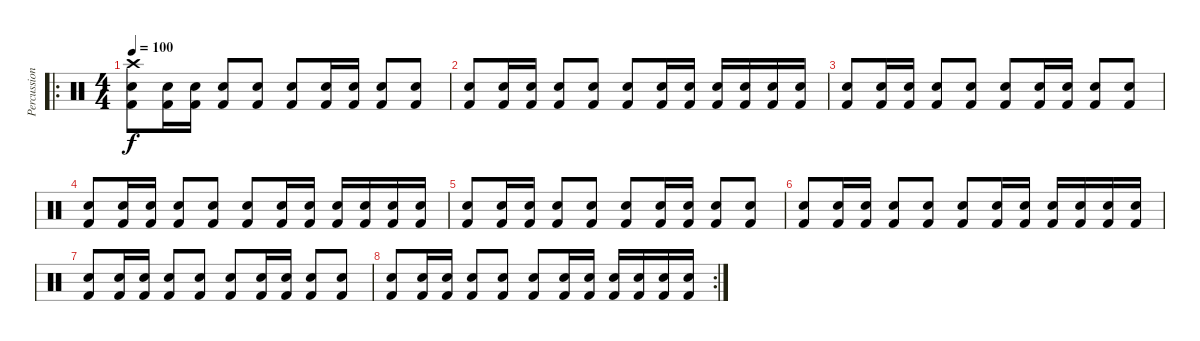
\track ("Percussions" "Percussion") {instrument percussion}
\staff {score}
\articulation defaults
\ro
\ts (4 4)
\tempo 100
\clef neutral
\ks c
("Crash high (hit)" "Snare (hit) 2" "Kick (hit) 2").8{dy f} ("Snare (hit) 2" "Kick (hit) 2").16 ("Snare (hit) 2" "Kick (hit) 2").16 ("Snare (hit) 2" "Kick (hit) 2").8 ("Snare (hit) 2" "Kick (hit) 2").8 ("Snare (hit) 2" "Kick (hit) 2").8 ("Snare (hit) 2" "Kick (hit) 2").16 ("Snare (hit) 2" "Kick (hit) 2").16 ("Snare (hit) 2" "Kick (hit) 2").8 ("Snare (hit) 2" "Kick (hit) 2").8 |
("Snare (hit) 2" "Kick (hit) 2").8 ("Snare (hit) 2" "Kick (hit) 2").16 ("Snare (hit) 2" "Kick (hit) 2").16 ("Snare (hit) 2" "Kick (hit) 2").8 ("Snare (hit) 2" "Kick (hit) 2").8 ("Snare (hit) 2" "Kick (hit) 2").8 ("Snare (hit) 2" "Kick (hit) 2").16 ("Snare (hit) 2" "Kick (hit) 2").16 ("Snare (hit) 2" "Kick (hit) 2").16 ("Snare (hit) 2" "Kick (hit) 2").16 ("Snare (hit) 2" "Kick (hit) 2").16 ("Snare (hit) 2" "Kick (hit) 2").16 |
("Snare (hit) 2" "Kick (hit) 2").8 ("Snare (hit) 2" "Kick (hit) 2").16 ("Snare (hit) 2" "Kick (hit) 2").16 ("Snare (hit) 2" "Kick (hit) 2").8 ("Snare (hit) 2" "Kick (hit) 2").8 ("Snare (hit) 2" "Kick (hit) 2").8 ("Snare (hit) 2" "Kick (hit) 2").16 ("Snare (hit) 2" "Kick (hit) 2").16 ("Snare (hit) 2" "Kick (hit) 2").8 ("Snare (hit) 2" "Kick (hit) 2").8 |
("Snare (hit) 2" "Kick (hit) 2").8 ("Snare (hit) 2" "Kick (hit) 2").16 ("Snare (hit) 2" "Kick (hit) 2").16 ("Snare (hit) 2" "Kick (hit) 2").8 ("Snare (hit) 2" "Kick (hit) 2").8 ("Snare (hit) 2" "Kick (hit) 2").8 ("Snare (hit) 2" "Kick (hit) 2").16 ("Snare (hit) 2" "Kick (hit) 2").16 ("Snare (hit) 2" "Kick (hit) 2").16 ("Snare (hit) 2" "Kick (hit) 2").16 ("Snare (hit) 2" "Kick (hit) 2").16 ("Snare (hit) 2" "Kick (hit) 2").16 |
("Snare (hit) 2" "Kick (hit) 2").8 ("Snare (hit) 2" "Kick (hit) 2").16 ("Snare (hit) 2" "Kick (hit) 2").16 ("Snare (hit) 2" "Kick (hit) 2").8 ("Snare (hit) 2" "Kick (hit) 2").8 ("Snare (hit) 2" "Kick (hit) 2").8 ("Snare (hit) 2" "Kick (hit) 2").16 ("Snare (hit) 2" "Kick (hit) 2").16 ("Snare (hit) 2" "Kick (hit) 2").8 ("Snare (hit) 2" "Kick (hit) 2").8 |
("Snare (hit) 2" "Kick (hit) 2").8 ("Snare (hit) 2" "Kick (hit) 2").16 ("Snare (hit) 2" "Kick (hit) 2").16 ("Snare (hit) 2" "Kick (hit) 2").8 ("Snare (hit) 2" "Kick (hit) 2").8 ("Snare (hit) 2" "Kick (hit) 2").8 ("Snare (hit) 2" "Kick (hit) 2").16 ("Snare (hit) 2" "Kick (hit) 2").16 ("Snare (hit) 2" "Kick (hit) 2").16 ("Snare (hit) 2" "Kick (hit) 2").16 ("Snare (hit) 2" "Kick (hit) 2").16 ("Snare (hit) 2" "Kick (hit) 2").16 |
("Snare (hit) 2" "Kick (hit) 2").8 ("Snare (hit) 2" "Kick (hit) 2").16 ("Snare (hit) 2" "Kick (hit) 2").16 ("Snare (hit) 2" "Kick (hit) 2").8 ("Snare (hit) 2" "Kick (hit) 2").8 ("Snare (hit) 2" "Kick (hit) 2").8 ("Snare (hit) 2" "Kick (hit) 2").16 ("Snare (hit) 2" "Kick (hit) 2").16 ("Snare (hit) 2" "Kick (hit) 2").8 ("Snare (hit) 2" "Kick (hit) 2").8 |
\rc 2
("Snare (hit) 2" "Kick (hit) 2").8 ("Snare (hit) 2" "Kick (hit) 2").16 ("Snare (hit) 2" "Kick (hit) 2").16 ("Snare (hit) 2" "Kick (hit) 2").8 ("Snare (hit) 2" "Kick (hit) 2").8 ("Snare (hit) 2" "Kick (hit) 2").8 ("Snare (hit) 2" "Kick (hit) 2").16 ("Snare (hit) 2" "Kick (hit) 2").16 ("Snare (hit) 2" "Kick (hit) 2").16 ("Snare (hit) 2" "Kick (hit) 2").16 ("Snare (hit) 2" "Kick (hit) 2").16 ("Snare (hit) 2" "Kick (hit) 2").16
